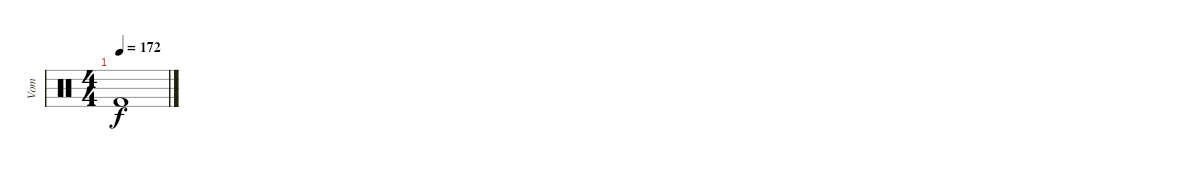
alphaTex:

\track ("Vom" "Vom") {instrument percussion}
\staff {score}
\articulation defaults
\ts (4 4)
\tempo 172
\clef neutral
\ks c "Kick (hit) 2".1{dy f}
